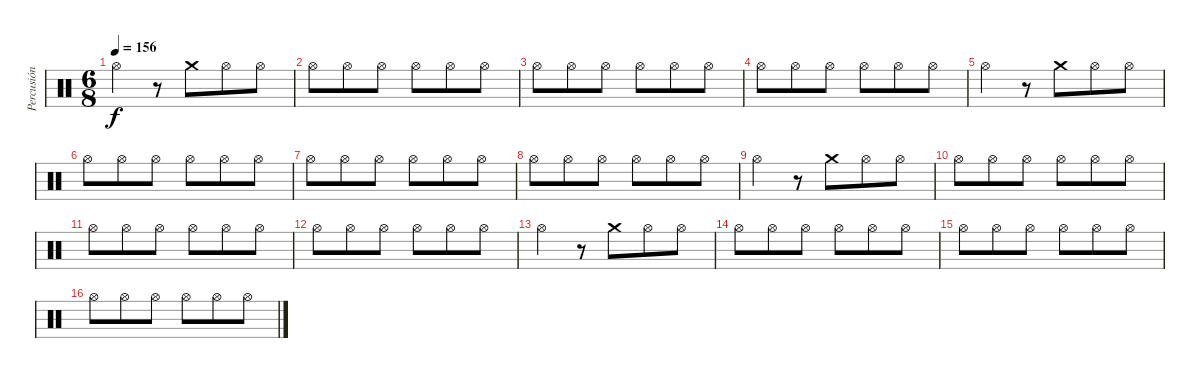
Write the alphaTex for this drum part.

\track ("Percusión" "Percusión") {instrument percussion}
\staff {score}
\articulation defaults
\ts (6 8)
\tempo 156
\clef neutral
\ks c "Hi-Hat (open)".4{dy f}
r.8 "Crash medium (hit)".8 "Hi-Hat (open)".8 "Hi-Hat (open)".8 |
"Hi-Hat (open)".8 "Hi-Hat (open)".8 "Hi-Hat (open)".8 "Hi-Hat (open)".8 "Hi-Hat (open)".8 "Hi-Hat (open)".8 |
"Hi-Hat (open)".8 "Hi-Hat (open)".8 "Hi-Hat (open)".8 "Hi-Hat (open)".8 "Hi-Hat (open)".8 "Hi-Hat (open)".8 |
"Hi-Hat (open)".8 "Hi-Hat (open)".8 "Hi-Hat (open)".8 "Hi-Hat (open)".8 "Hi-Hat (open)".8 "Hi-Hat (open)".8 |
"Hi-Hat (open)".4 r.8 "Crash medium (hit)".8 "Hi-Hat (open)".8 "Hi-Hat (open)".8 |
"Hi-Hat (open)".8 "Hi-Hat (open)".8 "Hi-Hat (open)".8 "Hi-Hat (open)".8 "Hi-Hat (open)".8 "Hi-Hat (open)".8 |
"Hi-Hat (open)".8 "Hi-Hat (open)".8 "Hi-Hat (open)".8 "Hi-Hat (open)".8 "Hi-Hat (open)".8 "Hi-Hat (open)".8 |
"Hi-Hat (open)".8 "Hi-Hat (open)".8 "Hi-Hat (open)".8 "Hi-Hat (open)".8 "Hi-Hat (open)".8 "Hi-Hat (open)".8 |
"Hi-Hat (open)".4 r.8 "Crash medium (hit)".8 "Hi-Hat (open)".8 "Hi-Hat (open)".8 |
"Hi-Hat (open)".8 "Hi-Hat (open)".8 "Hi-Hat (open)".8 "Hi-Hat (open)".8 "Hi-Hat (open)".8 "Hi-Hat (open)".8 |
"Hi-Hat (open)".8 "Hi-Hat (open)".8 "Hi-Hat (open)".8 "Hi-Hat (open)".8 "Hi-Hat (open)".8 "Hi-Hat (open)".8 |
"Hi-Hat (open)".8 "Hi-Hat (open)".8 "Hi-Hat (open)".8 "Hi-Hat (open)".8 "Hi-Hat (open)".8 "Hi-Hat (open)".8 |
"Hi-Hat (open)".4 r.8 "Crash medium (hit)".8 "Hi-Hat (open)".8 "Hi-Hat (open)".8 |
"Hi-Hat (open)".8 "Hi-Hat (open)".8 "Hi-Hat (open)".8 "Hi-Hat (open)".8 "Hi-Hat (open)".8 "Hi-Hat (open)".8 |
"Hi-Hat (open)".8 "Hi-Hat (open)".8 "Hi-Hat (open)".8 "Hi-Hat (open)".8 "Hi-Hat (open)".8 "Hi-Hat (open)".8 |
"Hi-Hat (open)".8 "Hi-Hat (open)".8 "Hi-Hat (open)".8 "Hi-Hat (open)".8 "Hi-Hat (open)".8 "Hi-Hat (open)".8
